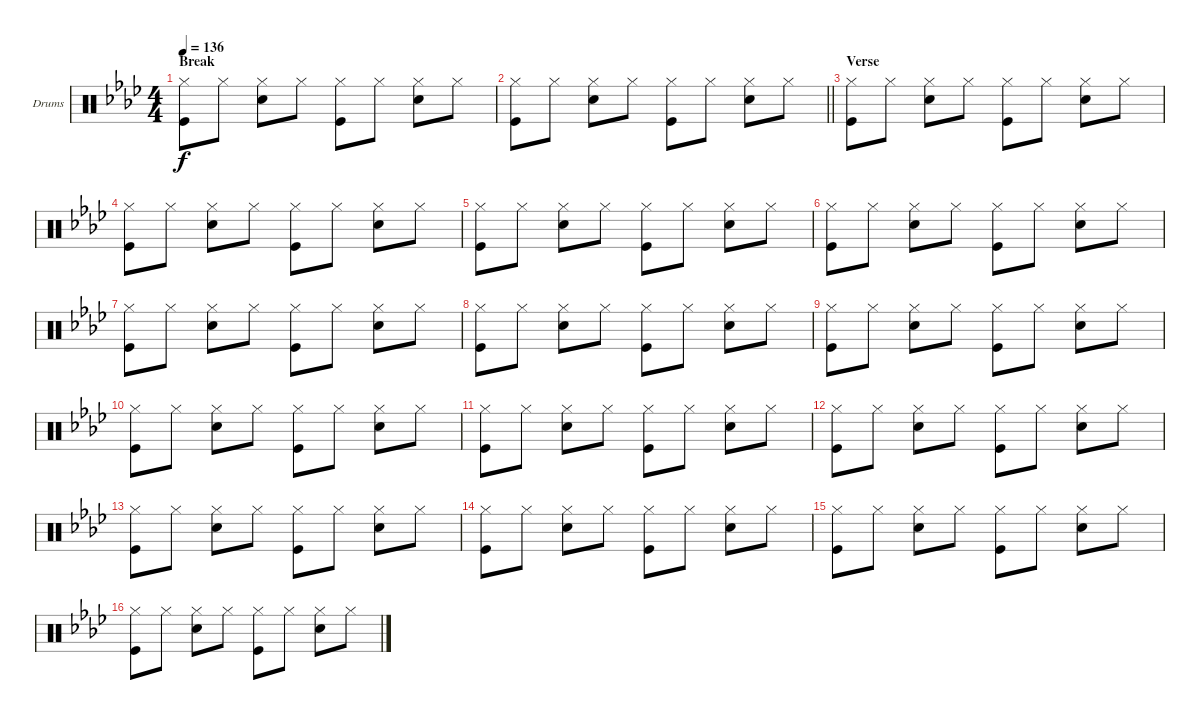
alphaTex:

\bracketExtendMode groupsimilarinstruments
\firstSystemTrackNameOrientation horizontal
\otherSystemsTrackNameOrientation horizontal
\track ("Fabrizio" "Drums") {instrument percussion}
\staff {score}
\articulation defaults
\ts (4 4)
\section ("" "Break")
\tempo 136
\clef neutral
\ks ab
("Hi-Hat (closed)" "Kick (hit)").8{dy f} "Hi-Hat (closed)".8 ("Hi-Hat (closed)" "Snare (hit) 2").8 "Hi-Hat (closed)".8 ("Hi-Hat (closed)" "Kick (hit)").8 "Hi-Hat (closed)".8 ("Hi-Hat (closed)" "Snare (hit) 2").8 "Hi-Hat (closed)".8 |
\barLineRight lightlight
("Hi-Hat (closed)" "Kick (hit)").8 "Hi-Hat (closed)".8 ("Hi-Hat (closed)" "Snare (hit) 2").8 "Hi-Hat (closed)".8 ("Hi-Hat (closed)" "Kick (hit)").8 "Hi-Hat (closed)".8 ("Hi-Hat (closed)" "Snare (hit) 2").8 "Hi-Hat (closed)".8 |
\section ("" "Verse")
("Hi-Hat (closed)" "Kick (hit)").8 "Hi-Hat (closed)".8 ("Hi-Hat (closed)" "Snare (hit) 2").8 "Hi-Hat (closed)".8 ("Hi-Hat (closed)" "Kick (hit)").8 "Hi-Hat (closed)".8 ("Hi-Hat (closed)" "Snare (hit) 2").8 "Hi-Hat (closed)".8 |
("Hi-Hat (closed)" "Kick (hit)").8 "Hi-Hat (closed)".8 ("Hi-Hat (closed)" "Snare (hit) 2").8 "Hi-Hat (closed)".8 ("Hi-Hat (closed)" "Kick (hit)").8 "Hi-Hat (closed)".8 ("Hi-Hat (closed)" "Snare (hit) 2").8 "Hi-Hat (closed)".8 |
("Hi-Hat (closed)" "Kick (hit)").8 "Hi-Hat (closed)".8 ("Hi-Hat (closed)" "Snare (hit) 2").8 "Hi-Hat (closed)".8 ("Hi-Hat (closed)" "Kick (hit)").8 "Hi-Hat (closed)".8 ("Hi-Hat (closed)" "Snare (hit) 2").8 "Hi-Hat (closed)".8 |
("Hi-Hat (closed)" "Kick (hit)").8 "Hi-Hat (closed)".8 ("Hi-Hat (closed)" "Snare (hit) 2").8 "Hi-Hat (closed)".8 ("Hi-Hat (closed)" "Kick (hit)").8 "Hi-Hat (closed)".8 ("Hi-Hat (closed)" "Snare (hit) 2").8 "Hi-Hat (closed)".8 |
("Hi-Hat (closed)" "Kick (hit)").8 "Hi-Hat (closed)".8 ("Hi-Hat (closed)" "Snare (hit) 2").8 "Hi-Hat (closed)".8 ("Hi-Hat (closed)" "Kick (hit)").8 "Hi-Hat (closed)".8 ("Hi-Hat (closed)" "Snare (hit) 2").8 "Hi-Hat (closed)".8 |
("Hi-Hat (closed)" "Kick (hit)").8 "Hi-Hat (closed)".8 ("Hi-Hat (closed)" "Snare (hit) 2").8 "Hi-Hat (closed)".8 ("Hi-Hat (closed)" "Kick (hit)").8 "Hi-Hat (closed)".8 ("Hi-Hat (closed)" "Snare (hit) 2").8 "Hi-Hat (closed)".8 |
("Hi-Hat (closed)" "Kick (hit)").8 "Hi-Hat (closed)".8 ("Hi-Hat (closed)" "Snare (hit) 2").8 "Hi-Hat (closed)".8 ("Hi-Hat (closed)" "Kick (hit)").8 "Hi-Hat (closed)".8 ("Hi-Hat (closed)" "Snare (hit) 2").8 "Hi-Hat (closed)".8 |
("Hi-Hat (closed)" "Kick (hit)").8 "Hi-Hat (closed)".8 ("Hi-Hat (closed)" "Snare (hit) 2").8 "Hi-Hat (closed)".8 ("Hi-Hat (closed)" "Kick (hit)").8 "Hi-Hat (closed)".8 ("Hi-Hat (closed)" "Snare (hit) 2").8 "Hi-Hat (closed)".8 |
("Hi-Hat (closed)" "Kick (hit)").8 "Hi-Hat (closed)".8 ("Hi-Hat (closed)" "Snare (hit) 2").8 "Hi-Hat (closed)".8 ("Hi-Hat (closed)" "Kick (hit)").8 "Hi-Hat (closed)".8 ("Hi-Hat (closed)" "Snare (hit) 2").8 "Hi-Hat (closed)".8 |
("Hi-Hat (closed)" "Kick (hit)").8 "Hi-Hat (closed)".8 ("Hi-Hat (closed)" "Snare (hit) 2").8 "Hi-Hat (closed)".8 ("Hi-Hat (closed)" "Kick (hit)").8 "Hi-Hat (closed)".8 ("Hi-Hat (closed)" "Snare (hit) 2").8 "Hi-Hat (closed)".8 |
("Hi-Hat (closed)" "Kick (hit)").8 "Hi-Hat (closed)".8 ("Hi-Hat (closed)" "Snare (hit) 2").8 "Hi-Hat (closed)".8 ("Hi-Hat (closed)" "Kick (hit)").8 "Hi-Hat (closed)".8 ("Hi-Hat (closed)" "Snare (hit) 2").8 "Hi-Hat (closed)".8 |
("Hi-Hat (closed)" "Kick (hit)").8 "Hi-Hat (closed)".8 ("Hi-Hat (closed)" "Snare (hit) 2").8 "Hi-Hat (closed)".8 ("Hi-Hat (closed)" "Kick (hit)").8 "Hi-Hat (closed)".8 ("Hi-Hat (closed)" "Snare (hit) 2").8 "Hi-Hat (closed)".8 |
("Hi-Hat (closed)" "Kick (hit)").8 "Hi-Hat (closed)".8 ("Hi-Hat (closed)" "Snare (hit) 2").8 "Hi-Hat (closed)".8 ("Hi-Hat (closed)" "Kick (hit)").8 "Hi-Hat (closed)".8 ("Hi-Hat (closed)" "Snare (hit) 2").8 "Hi-Hat (closed)".8 |
("Hi-Hat (closed)" "Kick (hit)").8 "Hi-Hat (closed)".8 ("Hi-Hat (closed)" "Snare (hit) 2").8 "Hi-Hat (closed)".8 ("Hi-Hat (closed)" "Kick (hit)").8 "Hi-Hat (closed)".8 ("Hi-Hat (closed)" "Snare (hit) 2").8 "Hi-Hat (closed)".8
